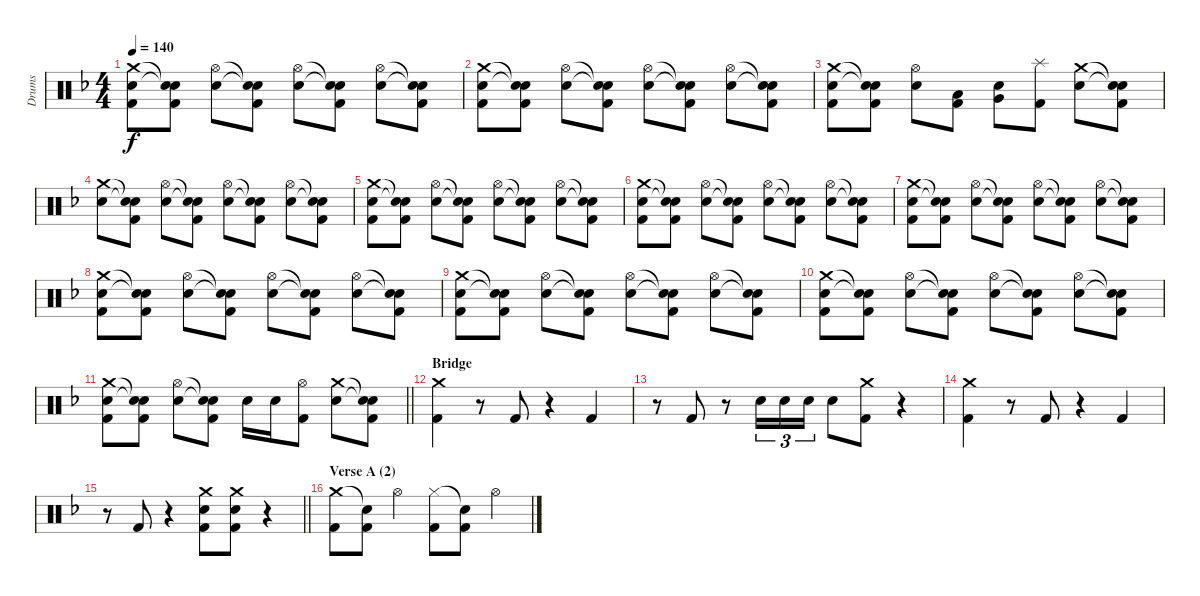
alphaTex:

\track ("Drums" "Drums") {instrument percussion}
\staff {score}
\articulation defaults
\ts (4 4)
\tempo 140
\clef neutral
\ks f
("Crash medium (hit)" "Electric Snare (hit)" "Kick (hit) 2").8{dy f} ("Snare (hit)"{t} "Snare (hit)"{t} "Kick (hit) 2").8 ("Hi-Hat (open)" "Electric Snare (hit)").8 ("Snare (hit)"{t} "Snare (hit)"{t} "Kick (hit) 2").8 ("Hi-Hat (open)" "Electric Snare (hit)").8 ("Snare (hit)"{t} "Snare (hit)"{t} "Kick (hit) 2").8 ("Hi-Hat (open)" "Electric Snare (hit)").8 ("Snare (hit)"{t} "Snare (hit)"{t} "Kick (hit) 2").8 |
("Crash medium (hit)" "Electric Snare (hit)" "Kick (hit) 2").8 ("Snare (hit)"{t} "Snare (hit)"{t} "Kick (hit) 2").8 ("Hi-Hat (open)" "Electric Snare (hit)").8 ("Snare (hit)"{t} "Snare (hit)"{t} "Kick (hit) 2").8 ("Hi-Hat (open)" "Electric Snare (hit)").8 ("Snare (hit)"{t} "Snare (hit)"{t} "Kick (hit) 2").8 ("Hi-Hat (open)" "Electric Snare (hit)").8 ("Snare (hit)"{t} "Snare (hit)"{t} "Kick (hit) 2").8 |
("Crash medium (hit)" "Electric Snare (hit)" "Kick (hit) 2").8 ("Snare (hit)"{t} "Snare (hit)"{t} "Kick (hit) 2").8 ("Hi-Hat (open)" "Electric Snare (hit)").8 ("Low Tom (hit)" "Kick (hit) 2").8 ("Electric Snare (hit)" "Very Low Tom (hit)").8 ("Splash (hit)" "Kick (hit) 2").8 ("Crash medium (hit)" "Electric Snare (hit)").8 ("Snare (hit)"{t} "Snare (hit)"{t} "Kick (hit) 2").8 |
("Crash medium (hit)" "Electric Snare (hit)").8 ("Snare (hit)"{t} "Snare (hit)"{t} "Kick (hit) 2").8 ("Hi-Hat (open)" "Electric Snare (hit)").8 ("Snare (hit)"{t} "Snare (hit)"{t} "Kick (hit) 2").8 ("Hi-Hat (open)" "Electric Snare (hit)").8 ("Snare (hit)"{t} "Snare (hit)"{t} "Kick (hit) 2").8 ("Hi-Hat (open)" "Electric Snare (hit)").8 ("Snare (hit)"{t} "Snare (hit)"{t} "Kick (hit) 2").8 |
("Crash medium (hit)" "Electric Snare (hit)" "Kick (hit) 2").8 ("Snare (hit)"{t} "Snare (hit)"{t} "Kick (hit) 2").8 ("Hi-Hat (open)" "Electric Snare (hit)").8 ("Snare (hit)"{t} "Snare (hit)"{t} "Kick (hit) 2").8 ("Hi-Hat (open)" "Electric Snare (hit)").8 ("Snare (hit)"{t} "Snare (hit)"{t} "Kick (hit) 2").8 ("Hi-Hat (open)" "Electric Snare (hit)").8 ("Snare (hit)"{t} "Snare (hit)"{t} "Kick (hit) 2").8 |
("Crash medium (hit)" "Electric Snare (hit)" "Kick (hit) 2").8 ("Snare (hit)"{t} "Snare (hit)"{t} "Kick (hit) 2").8 ("Hi-Hat (open)" "Electric Snare (hit)").8 ("Snare (hit)"{t} "Snare (hit)"{t} "Kick (hit) 2").8 ("Hi-Hat (open)" "Electric Snare (hit)").8 ("Snare (hit)"{t} "Snare (hit)"{t} "Kick (hit) 2").8 ("Hi-Hat (open)" "Electric Snare (hit)").8 ("Snare (hit)"{t} "Snare (hit)"{t} "Kick (hit) 2").8 |
("Crash medium (hit)" "Electric Snare (hit)" "Kick (hit) 2").8 ("Snare (hit)"{t} "Snare (hit)"{t} "Kick (hit) 2").8 ("Hi-Hat (open)" "Electric Snare (hit)").8 ("Snare (hit)"{t} "Snare (hit)"{t} "Kick (hit) 2").8 ("Hi-Hat (open)" "Electric Snare (hit)").8 ("Snare (hit)"{t} "Snare (hit)"{t} "Kick (hit) 2").8 ("Hi-Hat (open)" "Electric Snare (hit)").8 ("Snare (hit)"{t} "Snare (hit)"{t} "Kick (hit) 2").8 |
("Crash medium (hit)" "Electric Snare (hit)" "Kick (hit) 2").8 ("Snare (hit)"{t} "Snare (hit)"{t} "Kick (hit) 2").8 ("Hi-Hat (open)" "Electric Snare (hit)").8 ("Snare (hit)"{t} "Snare (hit)"{t} "Kick (hit) 2").8 ("Hi-Hat (open)" "Electric Snare (hit)").8 ("Snare (hit)"{t} "Snare (hit)"{t} "Kick (hit) 2").8 ("Hi-Hat (open)" "Electric Snare (hit)").8 ("Snare (hit)"{t} "Snare (hit)"{t} "Kick (hit) 2").8 |
("Crash medium (hit)" "Electric Snare (hit)" "Kick (hit) 2").8 ("Snare (hit)"{t} "Snare (hit)"{t} "Kick (hit) 2").8 ("Hi-Hat (open)" "Electric Snare (hit)").8 ("Snare (hit)"{t} "Snare (hit)"{t} "Kick (hit) 2").8 ("Hi-Hat (open)" "Electric Snare (hit)").8 ("Snare (hit)"{t} "Snare (hit)"{t} "Kick (hit) 2").8 ("Hi-Hat (open)" "Electric Snare (hit)").8 ("Snare (hit)"{t} "Snare (hit)"{t} "Kick (hit) 2").8 |
("Crash medium (hit)" "Electric Snare (hit)" "Kick (hit) 2").8 ("Snare (hit)"{t} "Snare (hit)"{t} "Kick (hit) 2").8 ("Hi-Hat (open)" "Electric Snare (hit)").8 ("Snare (hit)"{t} "Snare (hit)"{t} "Kick (hit) 2").8 ("Hi-Hat (open)" "Electric Snare (hit)").8 ("Snare (hit)"{t} "Snare (hit)"{t} "Kick (hit) 2").8 ("Hi-Hat (open)" "Electric Snare (hit)").8 ("Snare (hit)"{t} "Snare (hit)"{t} "Kick (hit) 2").8 |
\barLineRight lightlight
("Crash medium (hit)" "Electric Snare (hit)" "Kick (hit) 2").8 ("Snare (hit)"{t} "Snare (hit)"{t} "Kick (hit) 2").8 ("Hi-Hat (open)" "Electric Snare (hit)").8 ("Snare (hit)"{t} "Snare (hit)"{t} "Kick (hit) 2").8 "Electric Snare (hit)".16 "Electric Snare (hit)".16 ("Hi-Hat (open)" "Kick (hit) 2").8 ("Crash medium (hit)" "Electric Snare (hit)").8 ("Snare (hit)"{t} "Snare (hit)"{t} "Kick (hit) 2").8 |
\section ("" "Bridge")
("Crash medium (hit)" "Kick (hit) 2").4 r.8 "Kick (hit) 2".8 r.4 "Kick (hit) 2".4 |
r.8 "Kick (hit) 2".8 r.8 "Electric Snare (hit)".16{tu (3 2)} "Electric Snare (hit)".16{tu (3 2)} "Electric Snare (hit)".16{tu (3 2)} "Electric Snare (hit)".8 ("Crash medium (hit)" "Kick (hit) 2").8 r.4 |
("Crash medium (hit)" "Kick (hit) 2").4 r.8 "Kick (hit) 2".8 r.4 "Kick (hit) 2".4 |
\barLineRight lightlight
r.8 "Kick (hit) 2".8 r.4 ("Crash medium (hit)" "Electric Snare (hit)" "Kick (hit) 2").8 ("Crash medium (hit)" "Electric Snare (hit)" "Kick (hit) 2").8 r.4 |
\section ("" "Verse A (2)")
("Crash medium (hit)" "Kick (hit) 2").8 ("Snare (hit)"{t} "Kick (hit) 2").8 "Hi-Hat (open)".4 ("Hi-Hat (closed)" "Kick (hit) 2").8 ("Snare (hit)"{t} "Kick (hit) 2").8 "Hi-Hat (open)".4
